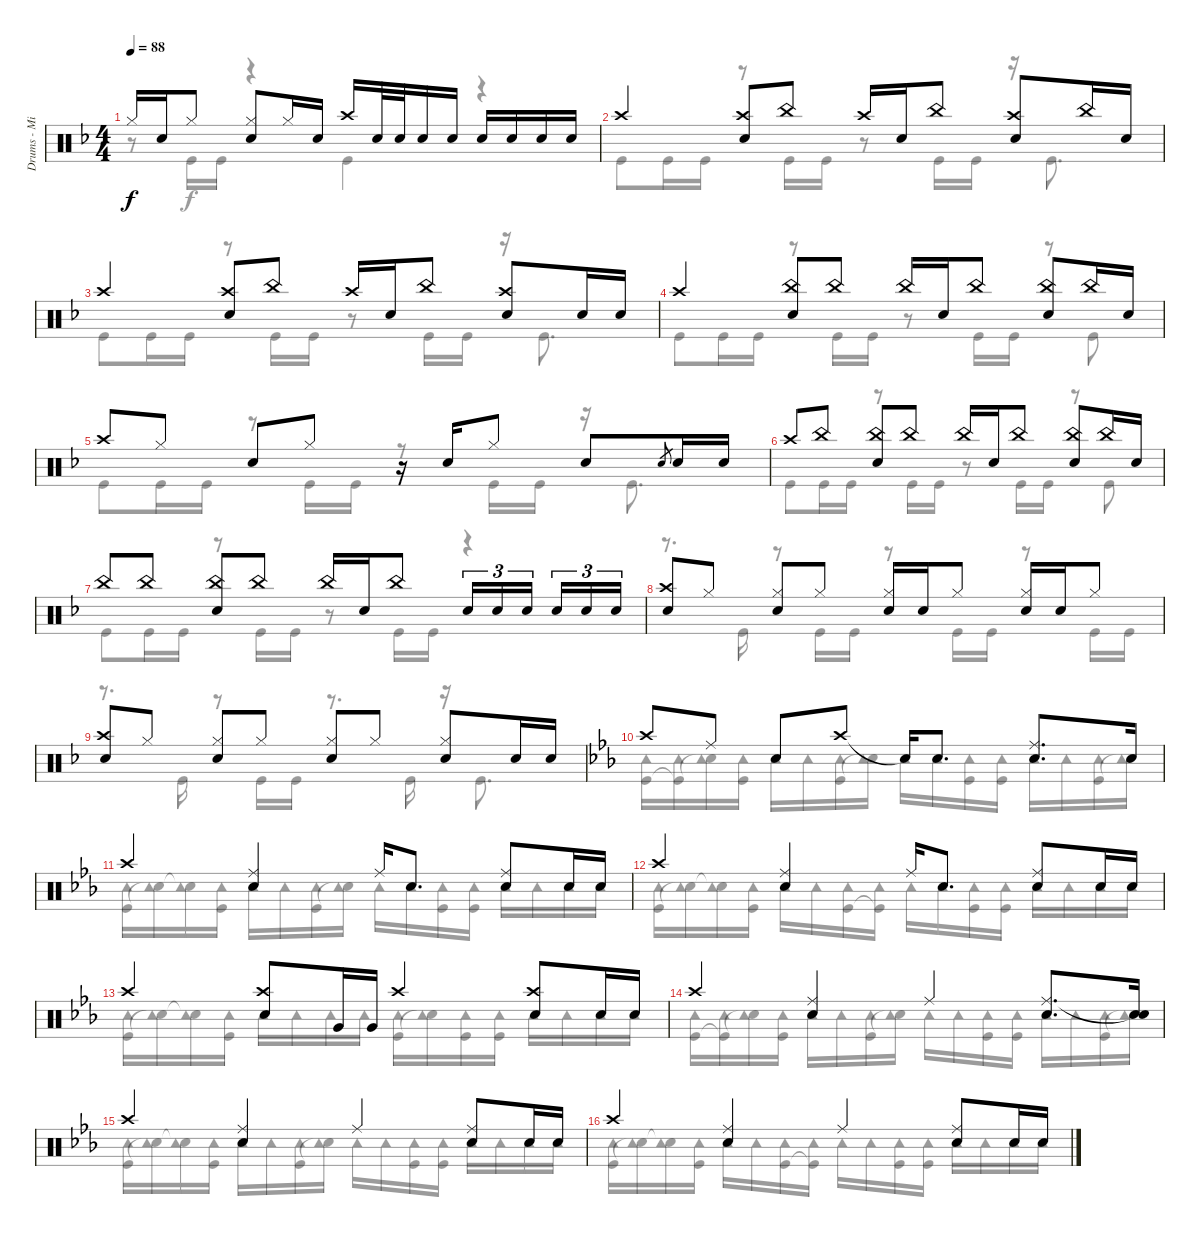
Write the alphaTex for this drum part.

\track ("Drums - Mike Portnoy" "Drums - Mi") {instrument percussion}
\staff {score}
\articulation defaults
\voice
\ts (4 4)
\tempo 88
\clef neutral
\ks f "Hi-Hat (closed)".16{dy f} "Snare (hit) 2".16 "Hi-Hat (closed)".8
("Hi-Hat (closed)" "Snare (hit) 2").8 "Hi-Hat (closed)".16 "Snare (hit) 2".16 "Crash high (hit)".16 "Snare (hit) 2".32 "Snare (hit) 2".32 "Snare (hit) 2".16 "Snare (hit) 2".16 "Snare (hit) 2".16 "Snare (hit) 2".16 "Snare (hit) 2".16 "Snare (hit) 2".16 |
"Crash high (hit)".4 ("Crash high (hit)" "Snare (hit) 2").8 "China (hit)".8 "Crash high (hit)".16 "Snare (hit) 2".16 "China (hit)".8 ("Crash high (hit)" "Snare (hit) 2").8 "China (hit)".16 "Snare (hit) 2".16 |
"Crash high (hit)".4 ("Crash high (hit)" "Snare (hit) 2").8 "China (hit)".8 "Crash high (hit)".16 "Snare (hit) 2".16 "China (hit)".8 ("Crash high (hit)" "Snare (hit) 2").8 "Snare (hit) 2".16 "Snare (hit) 2".16 |
"Crash high (hit)".4 ("China (hit)" "Snare (hit) 2").8 "China (hit)".8 "China (hit)".16 "Snare (hit) 2".16 "China (hit)".8 ("China (hit)" "Snare (hit) 2").8 "China (hit)".16 "Snare (hit) 2".16 |
"Crash high (hit)".8 "Hi-Hat (closed)".8 "Snare (hit) 2".8 "Hi-Hat (closed)".8 r.16 "Snare (hit) 2".16 "Hi-Hat (closed)".8 "Snare (hit) 2".8 "Snare (hit) 2".8{gr} "Snare (hit) 2".16 "Snare (hit) 2".16 |
"Crash high (hit)".8 "China (hit)".8 ("China (hit)" "Snare (hit) 2").8 "China (hit)".8 "China (hit)".16 "Snare (hit) 2".16 "China (hit)".8 ("China (hit)" "Snare (hit) 2").8 "China (hit)".16 "Snare (hit) 2".16 |
"China (hit)".8 "China (hit)".8 ("China (hit)" "Snare (hit) 2").8 "China (hit)".8 "China (hit)".16 "Snare (hit) 2".16 "China (hit)".8 "Snare (hit) 2".16{tu (3 2)} "Snare (hit) 2".16{tu (3 2)} "Snare (hit) 2".16{tu (3 2) beam splitsecondary} "Snare (hit) 2".16{tu (3 2)} "Snare (hit) 2".16{tu (3 2)} "Snare (hit) 2".16{tu (3 2)} |
("Crash high (hit)" "Snare (hit) 2").8 "Hi-Hat (closed)".8 ("Hi-Hat (closed)" "Snare (hit) 2").8 "Hi-Hat (closed)".8 ("Hi-Hat (closed)" "Snare (hit) 2").16 "Snare (hit) 2".16 "Hi-Hat (closed)".8 ("Hi-Hat (closed)" "Snare (hit) 2").16 "Snare (hit) 2".16 "Hi-Hat (closed)".8 |
("Crash high (hit)" "Snare (hit) 2").8 "Hi-Hat (closed)".8 ("Hi-Hat (closed)" "Snare (hit) 2").8 "Hi-Hat (closed)".8 ("Hi-Hat (closed)" "Snare (hit) 2").8 "Hi-Hat (closed)".8 ("Hi-Hat (closed)" "Snare (hit) 2").8 "Snare (hit) 2".16 "Snare (hit) 2".16 |
\ks eb "Crash high (hit)".8 "Ride (middle)".8 "Snare (hit) 2".8 "Crash high (hit)".8 "Snare (hit)"{t}.16 "Snare (hit) 2".8{d}
("Ride (middle)" "Snare (hit) 2").8{d} "Snare (hit) 2".16 |
"Crash high (hit)".4 ("Ride (middle)" "Snare (hit) 2").4 "Ride (middle)".16 "Snare (hit) 2".8{d} ("Ride (middle)" "Snare (hit) 2").8 "Snare (hit) 2".16 "Snare (hit) 2".16 |
"Crash high (hit)".4 ("Ride (middle)" "Snare (hit) 2").4 "Ride (middle)".16 "Snare (hit) 2".8{d} ("Ride (middle)" "Snare (hit) 2").8 "Snare (hit) 2".16 "Snare (hit) 2".16 |
"Crash high (hit)".4 ("Crash high (hit)" "Snare (hit) 2").8 "Very Low Tom (hit)".16 "Very Low Tom (hit)".16 "Crash high (hit)".4 ("Crash high (hit)" "Snare (hit) 2").8 "Snare (hit) 2".16 "Snare (hit) 2".16 |
"Crash high (hit)".4 ("Ride (middle)" "Snare (hit) 2").4 "Ride (middle)".4 ("Ride (middle)" "Snare (hit) 2").8{d} ("Snare (hit)"{t} "Snare (hit) 2").16 |
"Crash high (hit)".4 ("Ride (middle)" "Snare (hit) 2").4 "Ride (middle)".4 ("Ride (middle)" "Snare (hit) 2").8 "Snare (hit) 2".16 "Snare (hit) 2".16 |
"Crash high (hit)".4 ("Ride (middle)" "Snare (hit) 2").4 "Ride (middle)".4 ("Ride (middle)" "Snare (hit) 2").8 "Snare (hit) 2".16 "Snare (hit) 2".16
\voice
\clef neutral
\ottava regular
\simile none
\ks f
r.8{dy f} "Kick (hit)".16 "Kick (hit)".16 r.4 "Kick (hit)".4 r.4 |
"Kick (hit)".8 "Kick (hit)".16 "Kick (hit)".16 r.8 "Kick (hit)".16 "Kick (hit)".16 r.8 "Kick (hit)".16 "Kick (hit)".16 r.16 "Kick (hit)".8{d} |
"Kick (hit)".8 "Kick (hit)".16 "Kick (hit)".16 r.8 "Kick (hit)".16 "Kick (hit)".16 r.8 "Kick (hit)".16 "Kick (hit)".16 r.16 "Kick (hit)".8{d} |
"Kick (hit)".8 "Kick (hit)".16 "Kick (hit)".16 r.8 "Kick (hit)".16 "Kick (hit)".16 r.8 "Kick (hit)".16 "Kick (hit)".16 r.8 "Kick (hit)".8 |
"Kick (hit)".8 "Kick (hit)".16 "Kick (hit)".16 r.8 "Kick (hit)".16 "Kick (hit)".16 r.8 "Kick (hit)".16 "Kick (hit)".16 r.16 "Kick (hit)".8{d} |
"Kick (hit)".8 "Kick (hit)".16 "Kick (hit)".16 r.8 "Kick (hit)".16 "Kick (hit)".16 r.8 "Kick (hit)".16 "Kick (hit)".16 r.8 "Kick (hit)".8 |
"Kick (hit)".8 "Kick (hit)".16 "Kick (hit)".16 r.8 "Kick (hit)".16 "Kick (hit)".16 r.8 "Kick (hit)".16 "Kick (hit)".16 r.4 |
r.8{d} "Kick (hit)".16 r.8 "Kick (hit)".16 "Kick (hit)".16 r.8 "Kick (hit)".16 "Kick (hit)".16 r.8 "Kick (hit)".16 "Kick (hit)".16 |
r.8{d} "Kick (hit)".16 r.8 "Kick (hit)".16 "Kick (hit)".16 r.8{d} "Kick (hit)".16 r.16 "Kick (hit)".8{d} |
\ks eb
("Kick (hit)" "Tambourine (hit)").16 ("Kick (hit)"{t} "Tambourine (hit)").16 ("Snare (hit)"{t} "Tambourine (hit)").16 ("Kick (hit)" "Tambourine (hit)").16 "Tambourine (hit)".16 "Tambourine (hit)".16 ("Kick (hit)" "Tambourine (hit)").16 ("Snare (hit)"{t} "Tambourine (hit)").16 "Tambourine (hit)".16 "Tambourine (hit)".16 ("Kick (hit)" "Tambourine (hit)").16 ("Kick (hit)" "Tambourine (hit)").16 "Tambourine (hit)".16 "Tambourine (hit)".16 ("Kick (hit)" "Tambourine (hit)").16 ("Snare (hit)"{t} "Tambourine (hit)").16 |
("Kick (hit)" "Tambourine (hit)").16 ("Snare (hit)"{t} "Tambourine (hit)").16 ("Snare (hit)"{t} "Tambourine (hit)").16 ("Kick (hit)" "Tambourine (hit)").16 "Tambourine (hit)".16 "Tambourine (hit)".16 ("Kick (hit)" "Tambourine (hit)").16 ("Snare (hit)"{t} "Tambourine (hit)").16 "Tambourine (hit)".16 "Tambourine (hit)".16 ("Kick (hit)" "Tambourine (hit)").16 ("Kick (hit)" "Tambourine (hit)").16 "Tambourine (hit)".16 "Tambourine (hit)".16 "Tambourine (hit)".16 "Tambourine (hit)".16 |
("Kick (hit)" "Tambourine (hit)").16 ("Snare (hit)"{t} "Tambourine (hit)").16 ("Snare (hit)"{t} "Tambourine (hit)").16 ("Kick (hit)" "Tambourine (hit)").16 "Tambourine (hit)".16 "Tambourine (hit)".16 ("Kick (hit)" "Tambourine (hit)").16 ("Kick (hit)"{t} "Tambourine (hit)").16 "Tambourine (hit)".16 "Tambourine (hit)".16 ("Kick (hit)" "Tambourine (hit)").16 ("Kick (hit)" "Tambourine (hit)").16 "Tambourine (hit)".16 "Tambourine (hit)".16 "Tambourine (hit)".16 "Tambourine (hit)".16 |
("Kick (hit)" "Tambourine (hit)").16 ("Snare (hit)"{t} "Tambourine (hit)").16 ("Snare (hit)"{t} "Tambourine (hit)").16 ("Kick (hit)" "Tambourine (hit)").16 "Tambourine (hit)".16 "Tambourine (hit)".16 "Tambourine (hit)".16 "Tambourine (hit)".16 ("Kick (hit)" "Tambourine (hit)").16 ("Snare (hit)"{t} "Tambourine (hit)").16 ("Kick (hit)" "Tambourine (hit)").16 ("Kick (hit)" "Tambourine (hit)").16 "Tambourine (hit)".16 "Tambourine (hit)".16 "Tambourine (hit)".16 "Tambourine (hit)".16 |
("Kick (hit)" "Tambourine (hit)").16 ("Kick (hit)"{t} "Tambourine (hit)").16 ("Snare (hit)"{t} "Tambourine (hit)").16 ("Kick (hit)" "Tambourine (hit)").16 "Tambourine (hit)".16 "Tambourine (hit)".16 ("Kick (hit)" "Tambourine (hit)").16 ("Snare (hit)"{t} "Tambourine (hit)").16 "Tambourine (hit)".16 "Tambourine (hit)".16 ("Kick (hit)" "Tambourine (hit)").16 ("Kick (hit)" "Tambourine (hit)").16 "Tambourine (hit)".16 "Tambourine (hit)".16 ("Kick (hit)" "Tambourine (hit)").16 ("Snare (hit)"{t} "Tambourine (hit)").16 |
("Kick (hit)" "Tambourine (hit)").16 ("Snare (hit)"{t} "Tambourine (hit)").16 ("Snare (hit)"{t} "Tambourine (hit)").16 ("Kick (hit)" "Tambourine (hit)").16 "Tambourine (hit)".16 "Tambourine (hit)".16 ("Kick (hit)" "Tambourine (hit)").16 ("Snare (hit)"{t} "Tambourine (hit)").16 "Tambourine (hit)".16 "Tambourine (hit)".16 ("Kick (hit)" "Tambourine (hit)").16 ("Kick (hit)" "Tambourine (hit)").16 "Tambourine (hit)".16 "Tambourine (hit)".16 "Tambourine (hit)".16 "Tambourine (hit)".16 |
("Kick (hit)" "Tambourine (hit)").16 ("Snare (hit)"{t} "Tambourine (hit)").16 ("Snare (hit)"{t} "Tambourine (hit)").16 ("Kick (hit)" "Tambourine (hit)").16 "Tambourine (hit)".16 "Tambourine (hit)".16 ("Kick (hit)" "Tambourine (hit)").16 ("Kick (hit)"{t} "Tambourine (hit)").16 "Tambourine (hit)".16 "Tambourine (hit)".16 ("Kick (hit)" "Tambourine (hit)").16 ("Kick (hit)" "Tambourine (hit)").16 "Tambourine (hit)".16 "Tambourine (hit)".16 "Tambourine (hit)".16 "Tambourine (hit)".16
